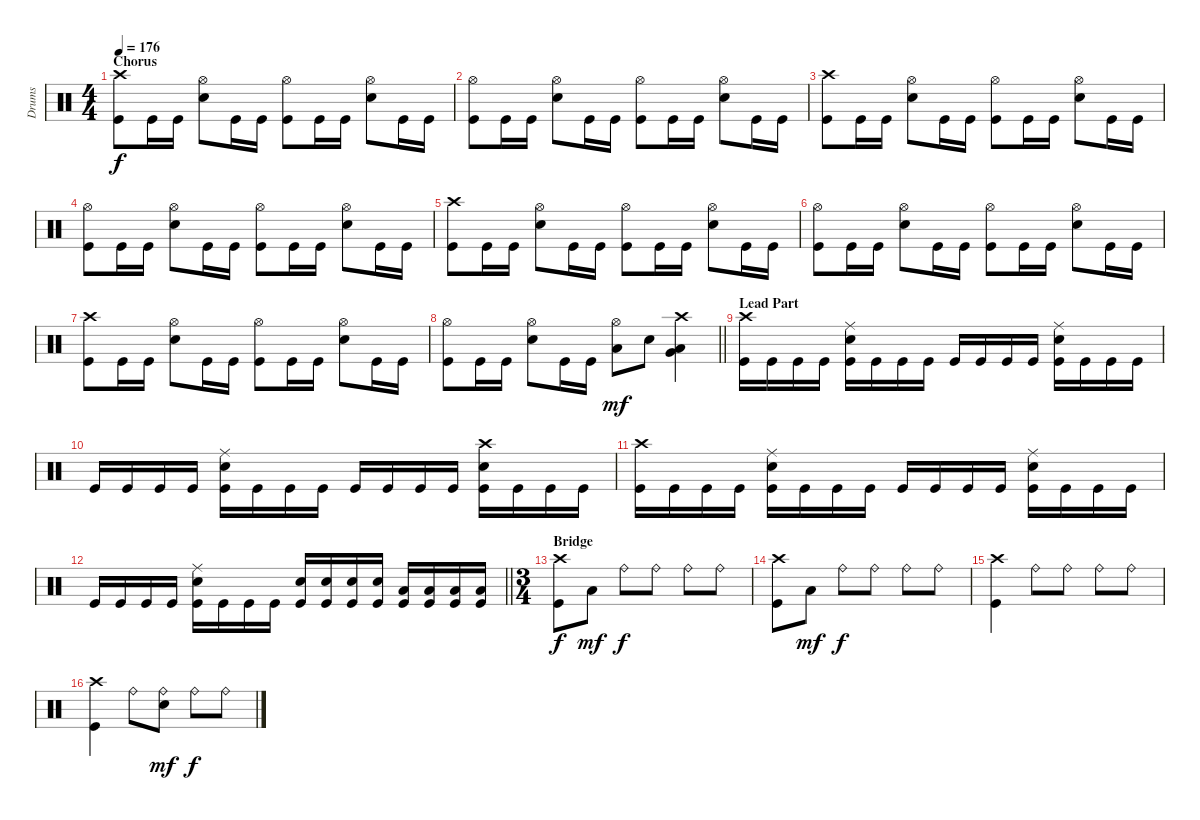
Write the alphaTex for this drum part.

\track ("Drums" "Drums") {instrument percussion}
\staff {score}
\articulation defaults
\ts (4 4)
\section ("" "Chorus")
\tempo 176
\clef neutral
\ks c
("Crash high (hit)" "Kick (hit)").8{dy f} "Kick (hit)".16 "Kick (hit)".16 ("Hi-Hat (open)" "Snare (hit) 2").8 "Kick (hit)".16 "Kick (hit)".16 ("Hi-Hat (open)" "Kick (hit)").8 "Kick (hit)".16 "Kick (hit)".16 ("Hi-Hat (open)" "Snare (hit) 2").8 "Kick (hit)".16 "Kick (hit)".16 |
("Hi-Hat (open)" "Kick (hit)").8 "Kick (hit)".16 "Kick (hit)".16 ("Hi-Hat (open)" "Snare (hit) 2").8 "Kick (hit)".16 "Kick (hit)".16 ("Hi-Hat (open)" "Kick (hit)").8 "Kick (hit)".16 "Kick (hit)".16 ("Hi-Hat (open)" "Snare (hit) 2").8 "Kick (hit)".16 "Kick (hit)".16 |
("Crash high (hit)" "Kick (hit)").8 "Kick (hit)".16 "Kick (hit)".16 ("Hi-Hat (open)" "Snare (hit) 2").8 "Kick (hit)".16 "Kick (hit)".16 ("Hi-Hat (open)" "Kick (hit)").8 "Kick (hit)".16 "Kick (hit)".16 ("Hi-Hat (open)" "Snare (hit) 2").8 "Kick (hit)".16 "Kick (hit)".16 |
("Hi-Hat (open)" "Kick (hit)").8 "Kick (hit)".16 "Kick (hit)".16 ("Hi-Hat (open)" "Snare (hit) 2").8 "Kick (hit)".16 "Kick (hit)".16 ("Hi-Hat (open)" "Kick (hit)").8 "Kick (hit)".16 "Kick (hit)".16 ("Hi-Hat (open)" "Snare (hit) 2").8 "Kick (hit)".16 "Kick (hit)".16 |
("Crash high (hit)" "Kick (hit)").8 "Kick (hit)".16 "Kick (hit)".16 ("Hi-Hat (open)" "Snare (hit) 2").8 "Kick (hit)".16 "Kick (hit)".16 ("Hi-Hat (open)" "Kick (hit)").8 "Kick (hit)".16 "Kick (hit)".16 ("Hi-Hat (open)" "Snare (hit) 2").8 "Kick (hit)".16 "Kick (hit)".16 |
("Hi-Hat (open)" "Kick (hit)").8 "Kick (hit)".16 "Kick (hit)".16 ("Hi-Hat (open)" "Snare (hit) 2").8 "Kick (hit)".16 "Kick (hit)".16 ("Hi-Hat (open)" "Kick (hit)").8 "Kick (hit)".16 "Kick (hit)".16 ("Hi-Hat (open)" "Snare (hit) 2").8 "Kick (hit)".16 "Kick (hit)".16 |
("Crash high (hit)" "Kick (hit)").8 "Kick (hit)".16 "Kick (hit)".16 ("Hi-Hat (open)" "Snare (hit) 2").8 "Kick (hit)".16 "Kick (hit)".16 ("Hi-Hat (open)" "Kick (hit)").8 "Kick (hit)".16 "Kick (hit)".16 ("Hi-Hat (open)" "Snare (hit) 2").8 "Kick (hit)".16 "Kick (hit)".16 |
\barLineRight lightlight
("Hi-Hat (open)" "Kick (hit)").8 "Kick (hit)".16 "Kick (hit)".16 ("Hi-Hat (open)" "Snare (hit) 2").8 "Kick (hit)".16 "Kick (hit)".16 ("Low Floor Tom (hit)" "Hi-Hat (open)").8{dy mf} "Snare (hit) 2".8 ("Very Low Tom (hit)" "Low Tom (hit)" "Crash high (hit)").4 |
\section ("" "Lead Part")
("Kick (hit)" "Crash high (hit)").16 "Kick (hit)".16 "Kick (hit)".16 "Kick (hit)".16 ("Kick (hit)" "Ride (middle)" "Snare (hit) 2").16 "Kick (hit)".16 "Kick (hit)".16 "Kick (hit)".16 "Kick (hit)".16 "Kick (hit)".16 "Kick (hit)".16 "Kick (hit)".16 ("Kick (hit)" "Ride (middle)" "Snare (hit) 2").16 "Kick (hit)".16 "Kick (hit)".16 "Kick (hit)".16 |
"Kick (hit)".16 "Kick (hit)".16 "Kick (hit)".16 "Kick (hit)".16 ("Kick (hit)" "Ride (middle)" "Snare (hit) 2").16 "Kick (hit)".16 "Kick (hit)".16 "Kick (hit)".16 "Kick (hit)".16 "Kick (hit)".16 "Kick (hit)".16 "Kick (hit)".16 ("Kick (hit)" "Snare (hit) 2" "Crash high (hit)").16 "Kick (hit)".16 "Kick (hit)".16 "Kick (hit)".16 |
("Kick (hit)" "Crash high (hit)").16 "Kick (hit)".16 "Kick (hit)".16 "Kick (hit)".16 ("Kick (hit)" "Ride (middle)" "Snare (hit) 2").16 "Kick (hit)".16 "Kick (hit)".16 "Kick (hit)".16 "Kick (hit)".16 "Kick (hit)".16 "Kick (hit)".16 "Kick (hit)".16 ("Kick (hit)" "Ride (middle)" "Snare (hit) 2").16 "Kick (hit)".16 "Kick (hit)".16 "Kick (hit)".16 |
\barLineRight lightlight "Kick (hit)".16 "Kick (hit)".16 "Kick (hit)".16 "Kick (hit)".16
("Kick (hit)" "Ride (middle)" "Snare (hit) 2").16 "Kick (hit)".16 "Kick (hit)".16 "Kick (hit)".16 ("Kick (hit)" "Snare (hit) 2").16 ("Kick (hit)" "Snare (hit) 2").16 ("Kick (hit)" "Snare (hit) 2").16 ("Kick (hit)" "Snare (hit) 2").16 ("Kick (hit)" "Low Tom (hit)").16 ("Kick (hit)" "Low Tom (hit)").16 ("Kick (hit)" "Low Tom (hit)").16 ("Kick (hit)" "Low Tom (hit)").16 |
\ts (3 4)
\section ("" "Bridge")
("Kick (hit)" "Crash high (hit)").8{dy f} "Low Floor Tom (hit)".8{dy mf} "Ride (bell)".8{dy f} "Ride (bell)".8 "Ride (bell)".8 "Ride (bell)".8 |
("Kick (hit)" "Crash high (hit)").8 "Low Floor Tom (hit)".8{dy mf} "Ride (bell)".8{dy f} "Ride (bell)".8 "Ride (bell)".8 "Ride (bell)".8 |
("Kick (hit)" "Crash high (hit)").4 "Ride (bell)".8 "Ride (bell)".8 "Ride (bell)".8 "Ride (bell)".8 |
("Kick (hit)" "Crash high (hit)").4 "Ride (bell)".8 ("Ride (bell)" "Snare (hit) 2").8{dy mf} "Ride (bell)".8{dy f} "Ride (bell)".8
